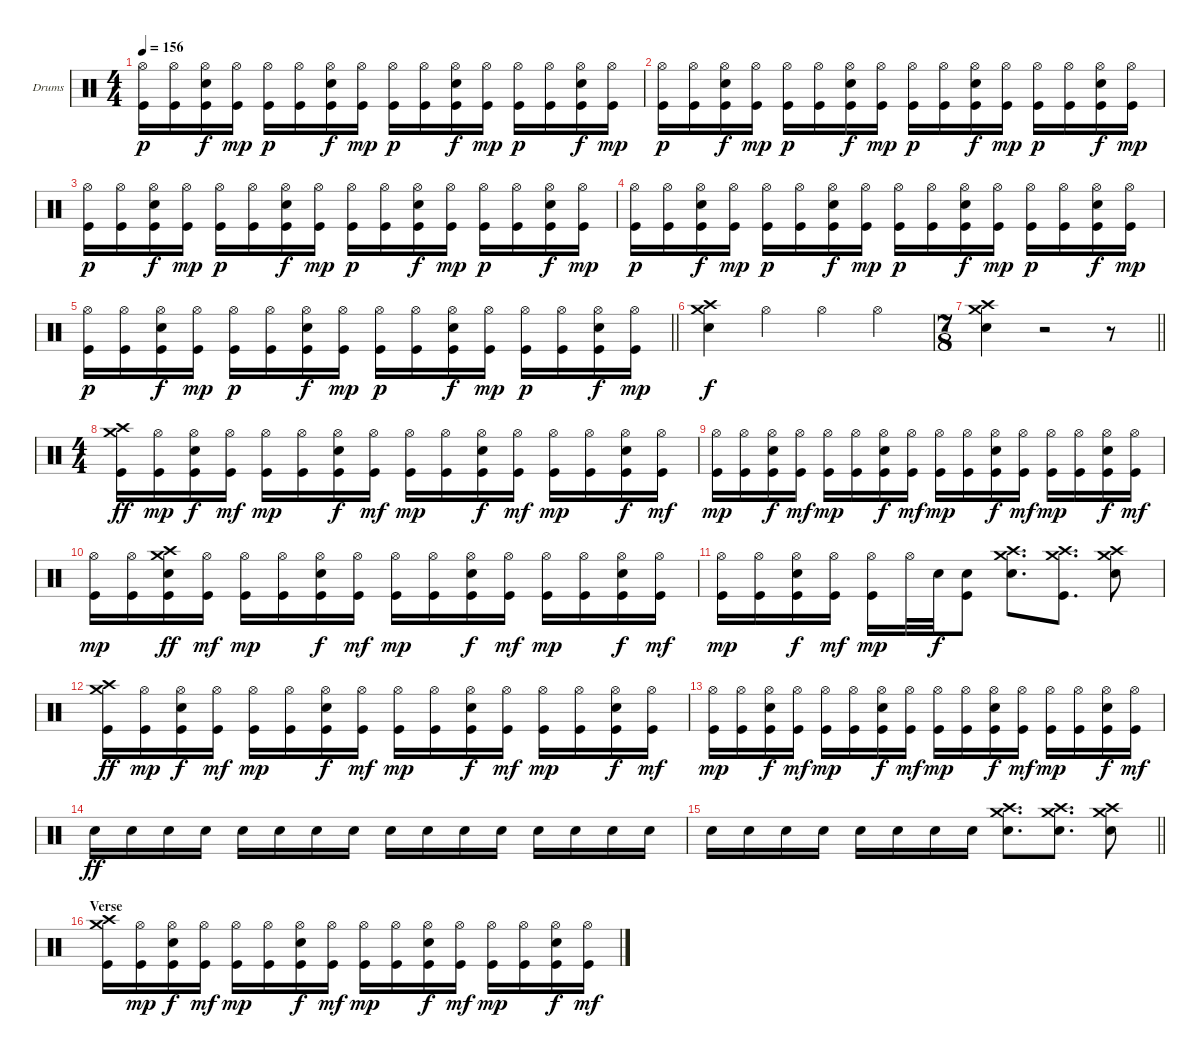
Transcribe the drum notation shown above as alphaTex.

\bracketExtendMode groupsimilarinstruments
\firstSystemTrackNameOrientation horizontal
\otherSystemsTrackNameOrientation horizontal
\track ("Drums" "Drums") {instrument percussion}
\staff {score}
\articulation defaults
\ts (4 4)
\tempo 156
\clef neutral
\ks c
("Hi-Hat (open)" "Kick (hit)").16{dy p} ("Hi-Hat (open)" "Kick (hit)").16 ("Hi-Hat (open)" "Snare (hit) 2" "Kick (hit)").16{dy f} ("Hi-Hat (open)" "Kick (hit)").16{dy mp} ("Hi-Hat (open)" "Kick (hit)").16{dy p} ("Hi-Hat (open)" "Kick (hit)").16 ("Hi-Hat (open)" "Snare (hit) 2" "Kick (hit)").16{dy f} ("Hi-Hat (open)" "Kick (hit)").16{dy mp} ("Hi-Hat (open)" "Kick (hit)").16{dy p} ("Hi-Hat (open)" "Kick (hit)").16 ("Hi-Hat (open)" "Snare (hit) 2" "Kick (hit)").16{dy f} ("Hi-Hat (open)" "Kick (hit)").16{dy mp} ("Hi-Hat (open)" "Kick (hit)").16{dy p} ("Hi-Hat (open)" "Kick (hit)").16 ("Hi-Hat (open)" "Snare (hit) 2" "Kick (hit)").16{dy f} ("Hi-Hat (open)" "Kick (hit)").16{dy mp} |
("Hi-Hat (open)" "Kick (hit)").16{dy p} ("Hi-Hat (open)" "Kick (hit)").16 ("Hi-Hat (open)" "Snare (hit) 2" "Kick (hit)").16{dy f} ("Hi-Hat (open)" "Kick (hit)").16{dy mp} ("Hi-Hat (open)" "Kick (hit)").16{dy p} ("Hi-Hat (open)" "Kick (hit)").16 ("Hi-Hat (open)" "Snare (hit) 2" "Kick (hit)").16{dy f} ("Hi-Hat (open)" "Kick (hit)").16{dy mp} ("Hi-Hat (open)" "Kick (hit)").16{dy p} ("Hi-Hat (open)" "Kick (hit)").16 ("Hi-Hat (open)" "Snare (hit) 2" "Kick (hit)").16{dy f} ("Hi-Hat (open)" "Kick (hit)").16{dy mp} ("Hi-Hat (open)" "Kick (hit)").16{dy p} ("Hi-Hat (open)" "Kick (hit)").16 ("Hi-Hat (open)" "Snare (hit) 2" "Kick (hit)").16{dy f} ("Hi-Hat (open)" "Kick (hit)").16{dy mp} |
("Hi-Hat (open)" "Kick (hit)").16{dy p} ("Hi-Hat (open)" "Kick (hit)").16 ("Hi-Hat (open)" "Snare (hit) 2" "Kick (hit)").16{dy f} ("Hi-Hat (open)" "Kick (hit)").16{dy mp} ("Hi-Hat (open)" "Kick (hit)").16{dy p} ("Hi-Hat (open)" "Kick (hit)").16 ("Hi-Hat (open)" "Snare (hit) 2" "Kick (hit)").16{dy f} ("Hi-Hat (open)" "Kick (hit)").16{dy mp} ("Hi-Hat (open)" "Kick (hit)").16{dy p} ("Hi-Hat (open)" "Kick (hit)").16 ("Hi-Hat (open)" "Snare (hit) 2" "Kick (hit)").16{dy f} ("Hi-Hat (open)" "Kick (hit)").16{dy mp} ("Hi-Hat (open)" "Kick (hit)").16{dy p} ("Hi-Hat (open)" "Kick (hit)").16 ("Hi-Hat (open)" "Snare (hit) 2" "Kick (hit)").16{dy f} ("Hi-Hat (open)" "Kick (hit)").16{dy mp} |
("Hi-Hat (open)" "Kick (hit)").16{dy p} ("Hi-Hat (open)" "Kick (hit)").16 ("Hi-Hat (open)" "Snare (hit) 2" "Kick (hit)").16{dy f} ("Hi-Hat (open)" "Kick (hit)").16{dy mp} ("Hi-Hat (open)" "Kick (hit)").16{dy p} ("Hi-Hat (open)" "Kick (hit)").16 ("Hi-Hat (open)" "Snare (hit) 2" "Kick (hit)").16{dy f} ("Hi-Hat (open)" "Kick (hit)").16{dy mp} ("Hi-Hat (open)" "Kick (hit)").16{dy p} ("Hi-Hat (open)" "Kick (hit)").16 ("Hi-Hat (open)" "Snare (hit) 2" "Kick (hit)").16{dy f} ("Hi-Hat (open)" "Kick (hit)").16{dy mp} ("Hi-Hat (open)" "Kick (hit)").16{dy p} ("Hi-Hat (open)" "Kick (hit)").16 ("Hi-Hat (open)" "Snare (hit) 2" "Kick (hit)").16{dy f} ("Hi-Hat (open)" "Kick (hit)").16{dy mp} |
\barLineRight lightlight
("Hi-Hat (open)" "Kick (hit)").16{dy p} ("Hi-Hat (open)" "Kick (hit)").16 ("Hi-Hat (open)" "Snare (hit) 2" "Kick (hit)").16{dy f} ("Hi-Hat (open)" "Kick (hit)").16{dy mp} ("Hi-Hat (open)" "Kick (hit)").16{dy p} ("Hi-Hat (open)" "Kick (hit)").16 ("Hi-Hat (open)" "Snare (hit) 2" "Kick (hit)").16{dy f} ("Hi-Hat (open)" "Kick (hit)").16{dy mp} ("Hi-Hat (open)" "Kick (hit)").16{dy p} ("Hi-Hat (open)" "Kick (hit)").16 ("Hi-Hat (open)" "Snare (hit) 2" "Kick (hit)").16{dy f} ("Hi-Hat (open)" "Kick (hit)").16{dy mp} ("Hi-Hat (open)" "Kick (hit)").16{dy p} ("Hi-Hat (open)" "Kick (hit)").16 ("Hi-Hat (open)" "Snare (hit) 2" "Kick (hit)").16{dy f} ("Hi-Hat (open)" "Kick (hit)").16{dy mp} |
("Crash medium (hit)" "Crash high (hit)" "Snare (hit) 2").4{dy f} "Hi-Hat (open)".4 "Hi-Hat (open)".4 "Hi-Hat (open)".4 |
\ts (7 8)
\beaming (8 3 2 2)
\barLineRight lightlight
("Crash medium (hit)" "Crash high (hit)" "Snare (hit) 2").4 r.2 r.8 |
\ts (4 4)
\beaming (8 2 2 2 2)
("Crash medium (hit)" "Crash high (hit)" "Kick (hit)").16{dy ff} ("Hi-Hat (open)" "Kick (hit)").16{dy mp} ("Hi-Hat (open)" "Snare (hit) 2" "Kick (hit)").16{dy f} ("Hi-Hat (open)" "Kick (hit)").16{dy mf} ("Hi-Hat (open)" "Kick (hit)").16{dy mp} ("Hi-Hat (open)" "Kick (hit)").16 ("Hi-Hat (open)" "Snare (hit) 2" "Kick (hit)").16{dy f} ("Hi-Hat (open)" "Kick (hit)").16{dy mf} ("Hi-Hat (open)" "Kick (hit)").16{dy mp} ("Hi-Hat (open)" "Kick (hit)").16 ("Hi-Hat (open)" "Snare (hit) 2" "Kick (hit)").16{dy f} ("Hi-Hat (open)" "Kick (hit)").16{dy mf} ("Hi-Hat (open)" "Kick (hit)").16{dy mp} ("Hi-Hat (open)" "Kick (hit)").16 ("Hi-Hat (open)" "Snare (hit) 2" "Kick (hit)").16{dy f} ("Hi-Hat (open)" "Kick (hit)").16{dy mf} |
("Hi-Hat (open)" "Kick (hit)").16{dy mp} ("Hi-Hat (open)" "Kick (hit)").16 ("Hi-Hat (open)" "Snare (hit) 2" "Kick (hit)").16{dy f} ("Hi-Hat (open)" "Kick (hit)").16{dy mf} ("Hi-Hat (open)" "Kick (hit)").16{dy mp} ("Hi-Hat (open)" "Kick (hit)").16 ("Hi-Hat (open)" "Snare (hit) 2" "Kick (hit)").16{dy f} ("Hi-Hat (open)" "Kick (hit)").16{dy mf} ("Hi-Hat (open)" "Kick (hit)").16{dy mp} ("Hi-Hat (open)" "Kick (hit)").16 ("Hi-Hat (open)" "Snare (hit) 2" "Kick (hit)").16{dy f} ("Hi-Hat (open)" "Kick (hit)").16{dy mf} ("Hi-Hat (open)" "Kick (hit)").16{dy mp} ("Hi-Hat (open)" "Kick (hit)").16 ("Hi-Hat (open)" "Snare (hit) 2" "Kick (hit)").16{dy f} ("Hi-Hat (open)" "Kick (hit)").16{dy mf} |
("Hi-Hat (open)" "Kick (hit)").16{dy mp} ("Hi-Hat (open)" "Kick (hit)").16 ("Crash medium (hit)" "Crash high (hit)" "Snare (hit) 2" "Kick (hit)").16{dy ff} ("Hi-Hat (open)" "Kick (hit)").16{dy mf} ("Hi-Hat (open)" "Kick (hit)").16{dy mp} ("Hi-Hat (open)" "Kick (hit)").16 ("Hi-Hat (open)" "Snare (hit) 2" "Kick (hit)").16{dy f} ("Hi-Hat (open)" "Kick (hit)").16{dy mf} ("Hi-Hat (open)" "Kick (hit)").16{dy mp} ("Hi-Hat (open)" "Kick (hit)").16 ("Hi-Hat (open)" "Snare (hit) 2" "Kick (hit)").16{dy f} ("Hi-Hat (open)" "Kick (hit)").16{dy mf} ("Hi-Hat (open)" "Kick (hit)").16{dy mp} ("Hi-Hat (open)" "Kick (hit)").16 ("Hi-Hat (open)" "Snare (hit) 2" "Kick (hit)").16{dy f} ("Hi-Hat (open)" "Kick (hit)").16{dy mf} |
("Hi-Hat (open)" "Kick (hit)").16{dy mp} ("Hi-Hat (open)" "Kick (hit)").16 ("Hi-Hat (open)" "Snare (hit) 2" "Kick (hit)").16{dy f} ("Hi-Hat (open)" "Kick (hit)").16{dy mf} ("Hi-Hat (open)" "Kick (hit)").16{dy mp} "Hi-Hat (open)".32 "Snare (hit) 2".32{dy f} ("Snare (hit) 2" "Kick (hit)").8 ("Crash medium (hit)" "Crash high (hit)" "Snare (hit) 2").8{d} ("Crash medium (hit)" "Crash high (hit)" "Kick (hit)").8{d} ("Crash medium (hit)" "Crash high (hit)" "Snare (hit) 2").8 |
("Crash medium (hit)" "Crash high (hit)" "Kick (hit)").16{dy ff} ("Hi-Hat (open)" "Kick (hit)").16{dy mp} ("Hi-Hat (open)" "Snare (hit) 2" "Kick (hit)").16{dy f} ("Hi-Hat (open)" "Kick (hit)").16{dy mf} ("Hi-Hat (open)" "Kick (hit)").16{dy mp} ("Hi-Hat (open)" "Kick (hit)").16 ("Hi-Hat (open)" "Snare (hit) 2" "Kick (hit)").16{dy f} ("Hi-Hat (open)" "Kick (hit)").16{dy mf} ("Hi-Hat (open)" "Kick (hit)").16{dy mp} ("Hi-Hat (open)" "Kick (hit)").16 ("Hi-Hat (open)" "Snare (hit) 2" "Kick (hit)").16{dy f} ("Hi-Hat (open)" "Kick (hit)").16{dy mf} ("Hi-Hat (open)" "Kick (hit)").16{dy mp} ("Hi-Hat (open)" "Kick (hit)").16 ("Hi-Hat (open)" "Snare (hit) 2" "Kick (hit)").16{dy f} ("Hi-Hat (open)" "Kick (hit)").16{dy mf} |
("Hi-Hat (open)" "Kick (hit)").16{dy mp} ("Hi-Hat (open)" "Kick (hit)").16 ("Hi-Hat (open)" "Snare (hit) 2" "Kick (hit)").16{dy f} ("Hi-Hat (open)" "Kick (hit)").16{dy mf} ("Hi-Hat (open)" "Kick (hit)").16{dy mp} ("Hi-Hat (open)" "Kick (hit)").16 ("Hi-Hat (open)" "Snare (hit) 2" "Kick (hit)").16{dy f} ("Hi-Hat (open)" "Kick (hit)").16{dy mf} ("Hi-Hat (open)" "Kick (hit)").16{dy mp} ("Hi-Hat (open)" "Kick (hit)").16 ("Hi-Hat (open)" "Snare (hit) 2" "Kick (hit)").16{dy f} ("Hi-Hat (open)" "Kick (hit)").16{dy mf} ("Hi-Hat (open)" "Kick (hit)").16{dy mp} ("Hi-Hat (open)" "Kick (hit)").16 ("Hi-Hat (open)" "Snare (hit) 2" "Kick (hit)").16{dy f} ("Hi-Hat (open)" "Kick (hit)").16{dy mf} |
"Snare (hit) 2".16{dy ff} "Snare (hit) 2".16 "Snare (hit) 2".16 "Snare (hit) 2".16 "Snare (hit) 2".16 "Snare (hit) 2".16 "Snare (hit) 2".16 "Snare (hit) 2".16 "Snare (hit) 2".16 "Snare (hit) 2".16 "Snare (hit) 2".16 "Snare (hit) 2".16 "Snare (hit) 2".16 "Snare (hit) 2".16 "Snare (hit) 2".16 "Snare (hit) 2".16 |
\barLineRight lightlight "Snare (hit) 2".16 "Snare (hit) 2".16 "Snare (hit) 2".16 "Snare (hit) 2".16 "Snare (hit) 2".16 "Snare (hit) 2".16 "Snare (hit) 2".16 "Snare (hit) 2".16
("Crash medium (hit)" "Crash high (hit)" "Snare (hit) 2").8{d} ("Crash medium (hit)" "Crash high (hit)" "Snare (hit) 2").8{d} ("Crash medium (hit)" "Crash high (hit)" "Snare (hit) 2").8 |
\section ("" "Verse")
("Crash medium (hit)" "Crash high (hit)" "Kick (hit)").16 ("Hi-Hat (open)" "Kick (hit)").16{dy mp} ("Hi-Hat (open)" "Snare (hit) 2" "Kick (hit)").16{dy f} ("Hi-Hat (open)" "Kick (hit)").16{dy mf} ("Hi-Hat (open)" "Kick (hit)").16{dy mp} ("Hi-Hat (open)" "Kick (hit)").16 ("Hi-Hat (open)" "Snare (hit) 2" "Kick (hit)").16{dy f} ("Hi-Hat (open)" "Kick (hit)").16{dy mf} ("Hi-Hat (open)" "Kick (hit)").16{dy mp} ("Hi-Hat (open)" "Kick (hit)").16 ("Hi-Hat (open)" "Snare (hit) 2" "Kick (hit)").16{dy f} ("Hi-Hat (open)" "Kick (hit)").16{dy mf} ("Hi-Hat (open)" "Kick (hit)").16{dy mp} ("Hi-Hat (open)" "Kick (hit)").16 ("Hi-Hat (open)" "Snare (hit) 2" "Kick (hit)").16{dy f} ("Hi-Hat (open)" "Kick (hit)").16{dy mf}
